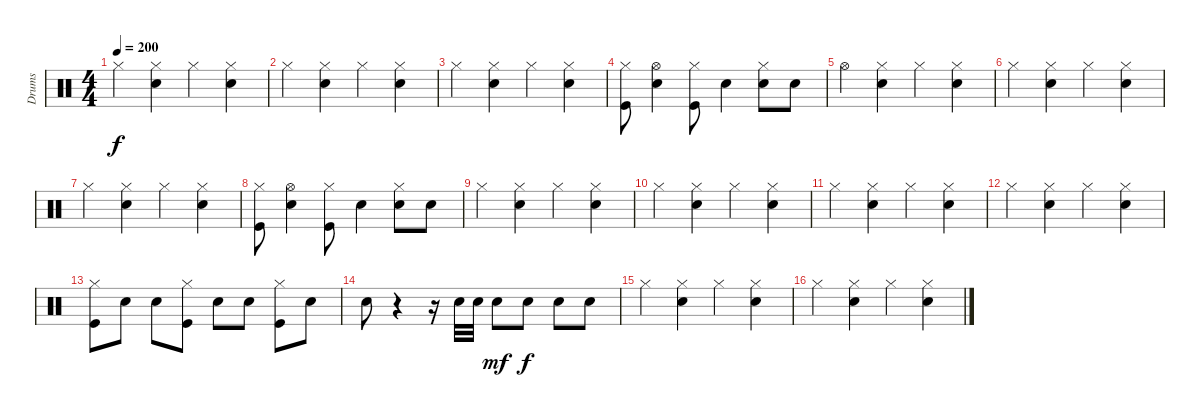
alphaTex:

\track ("Drums" "Drums") {instrument percussion}
\staff {score}
\articulation defaults
\ts (4 4)
\tempo 200
\clef neutral
\ks c "Hi-Hat (closed)".4{dy f}
("Snare (hit) 2" "Hi-Hat (closed)").4 "Hi-Hat (closed)".4 ("Snare (hit) 2" "Hi-Hat (closed)").4 |
"Hi-Hat (closed)".4 ("Snare (hit) 2" "Hi-Hat (closed)").4 "Hi-Hat (closed)".4 ("Snare (hit) 2" "Hi-Hat (closed)").4 |
"Hi-Hat (closed)".4 ("Snare (hit) 2" "Hi-Hat (closed)").4 "Hi-Hat (closed)".4 ("Snare (hit) 2" "Hi-Hat (closed)").4 |
("Kick (hit)" "Hi-Hat (closed)").8 ("Hi-Hat (open)" "Electric Snare (hit)").4 ("Kick (hit)" "Hi-Hat (closed)").8 "Electric Snare (hit)".4 ("Electric Snare (hit)" "Hi-Hat (closed)").8 "Electric Snare (hit)".8 |
"Hi-Hat (open)".4 ("Snare (hit) 2" "Hi-Hat (closed)").4 "Hi-Hat (closed)".4 ("Snare (hit) 2" "Hi-Hat (closed)").4 |
"Hi-Hat (closed)".4 ("Snare (hit) 2" "Hi-Hat (closed)").4 "Hi-Hat (closed)".4 ("Snare (hit) 2" "Hi-Hat (closed)").4 |
"Hi-Hat (closed)".4 ("Snare (hit) 2" "Hi-Hat (closed)").4 "Hi-Hat (closed)".4 ("Snare (hit) 2" "Hi-Hat (closed)").4 |
("Kick (hit)" "Hi-Hat (closed)").8 ("Hi-Hat (open)" "Electric Snare (hit)").4 ("Kick (hit)" "Hi-Hat (closed)").8 "Electric Snare (hit)".4 ("Electric Snare (hit)" "Hi-Hat (closed)").8 "Electric Snare (hit)".8 |
"Hi-Hat (closed)".4 ("Snare (hit) 2" "Hi-Hat (closed)").4 "Hi-Hat (closed)".4 ("Snare (hit) 2" "Hi-Hat (closed)").4 |
"Hi-Hat (closed)".4 ("Snare (hit) 2" "Hi-Hat (closed)").4 "Hi-Hat (closed)".4 ("Snare (hit) 2" "Hi-Hat (closed)").4 |
"Hi-Hat (closed)".4 ("Snare (hit) 2" "Hi-Hat (closed)").4 "Hi-Hat (closed)".4 ("Snare (hit) 2" "Hi-Hat (closed)").4 |
"Hi-Hat (closed)".4 ("Snare (hit) 2" "Hi-Hat (closed)").4 "Hi-Hat (closed)".4 ("Snare (hit) 2" "Hi-Hat (closed)").4 |
("Hi-Hat (closed)" "Kick (hit)").8 "Electric Snare (hit)".8 "Electric Snare (hit)".8 ("Hi-Hat (closed)" "Kick (hit)").8 "Electric Snare (hit)".8 "Electric Snare (hit)".8 ("Hi-Hat (closed)" "Kick (hit)").8 "Electric Snare (hit)".8 |
"Electric Snare (hit)".8 r.4 r.16 "Electric Snare (hit)".32 "Electric Snare (hit)".32 "Electric Snare (hit)".8{dy mf} "Electric Snare (hit)".8{dy f} "Electric Snare (hit)".8 "Electric Snare (hit)".8 |
"Hi-Hat (closed)".4 ("Snare (hit) 2" "Hi-Hat (closed)").4 "Hi-Hat (closed)".4 ("Snare (hit) 2" "Hi-Hat (closed)").4 |
"Hi-Hat (closed)".4 ("Snare (hit) 2" "Hi-Hat (closed)").4 "Hi-Hat (closed)".4 ("Snare (hit) 2" "Hi-Hat (closed)").4
